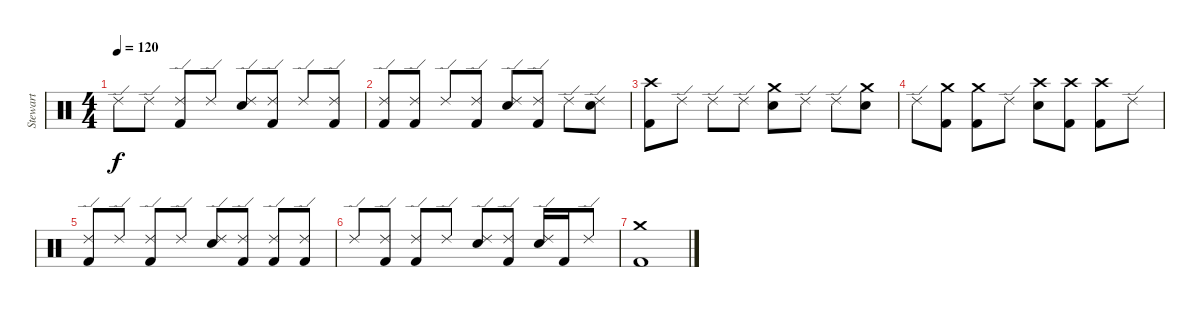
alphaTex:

\track ("Stewart" "Stewart") {instrument percussion}
\staff {score}
\articulation defaults
\ts (4 4)
\tempo 120
\clef neutral
\ks c "Ride (edge) 2".8{dy f} "Ride (edge) 2".8
("Ride (edge) 2" "Kick (hit) 2").8 "Ride (edge) 2".8 ("Ride (edge) 2" "Electric Snare (hit)").8 ("Ride (edge) 2" "Kick (hit) 2").8 "Ride (edge) 2".8 ("Ride (edge) 2" "Kick (hit) 2").8 |
("Ride (edge) 2" "Kick (hit) 2").8 ("Ride (edge) 2" "Kick (hit) 2").8 "Ride (edge) 2".8 ("Ride (edge) 2" "Kick (hit) 2").8 ("Ride (edge) 2" "Electric Snare (hit)").8 ("Ride (edge) 2" "Kick (hit) 2").8 "Ride (edge) 2".8 ("Ride (edge) 2" "Electric Snare (hit)").8 |
("Crash high (hit)" "Kick (hit) 2").8 "Ride (edge) 2".8 "Ride (edge) 2".8 "Ride (edge) 2".8 ("Crash medium (hit)" "Electric Snare (hit)").8 "Ride (edge) 2".8 "Ride (edge) 2".8 ("Crash medium (hit)" "Electric Snare (hit)").8 |
"Ride (edge) 2".8 ("Crash medium (hit)" "Kick (hit) 2").8 ("Crash medium (hit)" "Kick (hit) 2").8 "Ride (edge) 2".8 ("Crash high (hit)" "Electric Snare (hit)").8 ("Crash high (hit)" "Kick (hit) 2").8 ("Crash high (hit)" "Kick (hit) 2").8 "Ride (edge) 2".8 |
("Ride (edge) 2" "Kick (hit) 2").8 "Ride (edge) 2".8 ("Ride (edge) 2" "Kick (hit) 2").8 "Ride (edge) 2".8 ("Ride (edge) 2" "Electric Snare (hit)").8 ("Ride (edge) 2" "Kick (hit) 2").8 ("Ride (edge) 2" "Kick (hit) 2").8 ("Ride (edge) 2" "Kick (hit) 2").8 |
"Ride (edge) 2".8 ("Ride (edge) 2" "Kick (hit) 2").8 ("Ride (edge) 2" "Kick (hit) 2").8 "Ride (edge) 2".8 ("Ride (edge) 2" "Electric Snare (hit)").8 ("Ride (edge) 2" "Kick (hit) 2").8 ("Ride (edge) 2" "Electric Snare (hit)").16 "Kick (hit) 2".16 "Ride (edge) 2".8 |
("Crash medium (hit)" "Kick (hit) 2").1
